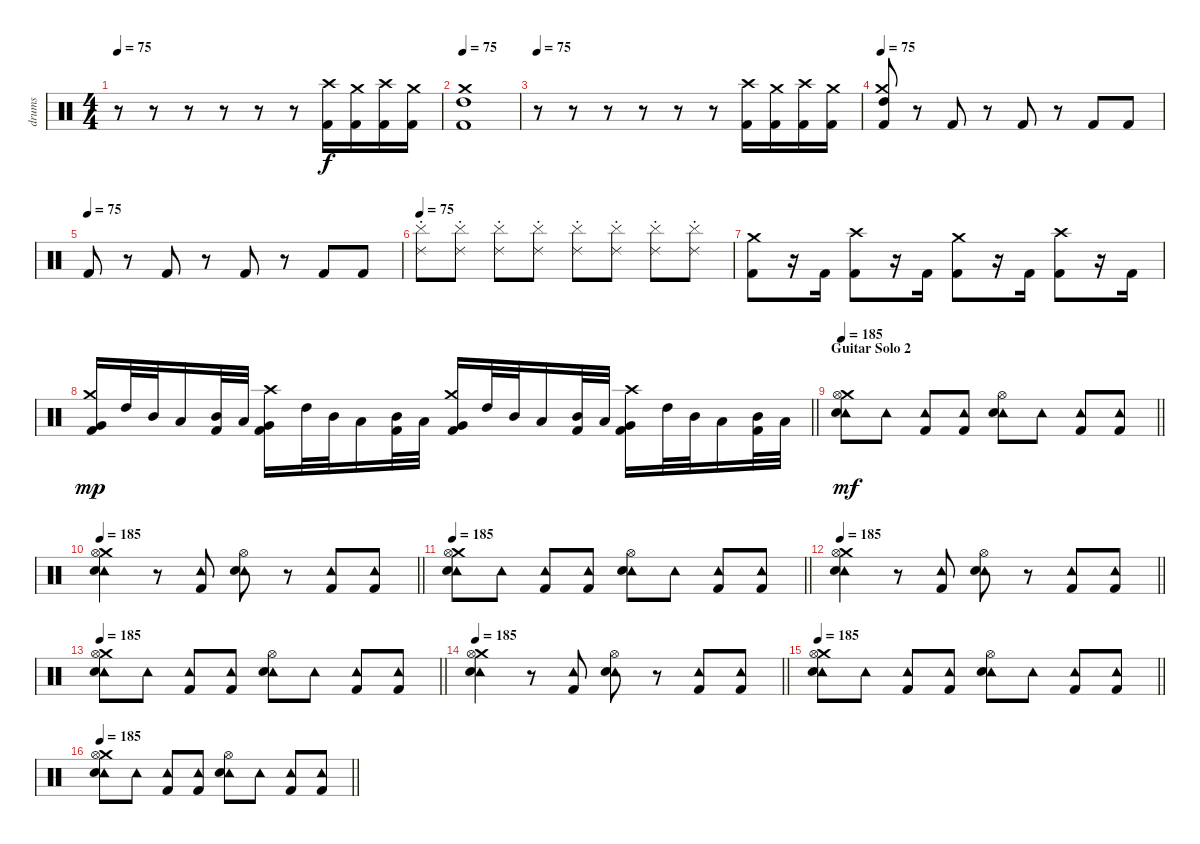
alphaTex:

\track ("drums" "drums") {instrument percussion}
\staff {score}
\articulation defaults
\ts (4 4)
\tempo 75
\clef neutral
\ks c
r.8{dy f} r.8 r.8 r.8 r.8 r.8 ("Crash high (hit)" "Kick (hit) 2").16 ("Crash medium (hit)" "Kick (hit) 2").16 ("Crash high (hit)" "Kick (hit) 2").16 ("Crash medium (hit)" "Kick (hit) 2").16 |
\tempo 75
("Crash medium (hit)" "High Tom (hit)" "Kick (hit) 2").1 |
\tempo 75
r.8 r.8 r.8 r.8 r.8 r.8 ("Crash high (hit)" "Kick (hit) 2").16 ("Crash medium (hit)" "Kick (hit) 2").16 ("Crash high (hit)" "Kick (hit) 2").16 ("Crash medium (hit)" "Kick (hit) 2").16 |
\tempo 75
("Crash medium (hit)" "High Tom (hit)" "Kick (hit) 2").8 r.8 "Kick (hit) 2".8 r.8 "Kick (hit) 2".8 r.8 "Kick (hit) 2".8 "Kick (hit) 2".8 |
\tempo (75)
"Kick (hit) 2".8 r.8 "Kick (hit) 2".8 r.8 "Kick (hit) 2".8 r.8 "Kick (hit) 2".8 "Kick (hit) 2".8 |
\tempo 75
("Cymbal (hit)" "Ride (choke) 2").8 ("Cymbal (hit)" "Ride (choke) 2").8 ("Cymbal (hit)" "Ride (choke) 2").8 ("Cymbal (hit)" "Ride (choke) 2").8 ("Cymbal (hit)" "Ride (choke) 2").8 ("Cymbal (hit)" "Ride (choke) 2").8 ("Cymbal (hit)" "Ride (choke) 2").8 ("Cymbal (hit)" "Ride (choke) 2").8 |
("Crash medium (hit)" "Kick (hit) 2").8 r.16 "Kick (hit) 2".16 ("Crash high (hit)" "Kick (hit) 2").8 r.16 "Kick (hit) 2".16 ("Crash medium (hit)" "Kick (hit) 2").8 r.16 "Kick (hit) 2".16 ("Crash high (hit)" "Kick (hit) 2").8 r.16 "Kick (hit) 2".16 |
\barLineRight lightlight
("Crash medium (hit)" "Very Low Tom (hit)" "Kick (hit) 2").16{dy mp} "High Tom (hit)".32 "Mid Tom (hit)".32 "Low Tom (hit)".16 ("Mid Tom (hit)" "Kick (hit) 2").32 "Low Tom (hit)".32 ("Crash high (hit)" "Very Low Tom (hit)" "Kick (hit) 2").16 "High Tom (hit)".32 "Mid Tom (hit)".32 "Low Tom (hit)".16 ("Mid Tom (hit)" "Kick (hit) 2").32 "Low Tom (hit)".32 ("Crash medium (hit)" "Very Low Tom (hit)" "Kick (hit) 2").16 "High Tom (hit)".32 "Mid Tom (hit)".32 "Low Tom (hit)".16 ("Mid Tom (hit)" "Kick (hit) 2").32 "Low Tom (hit)".32 ("Crash high (hit)" "Very Low Tom (hit)" "Kick (hit) 2").16 "High Tom (hit)".32 "Mid Tom (hit)".32 "Low Tom (hit)".16 ("Mid Tom (hit)" "Kick (hit) 2").32 "Low Tom (hit)".32 |
\section ("" "Guitar Solo 2")
\tempo 185
\barLineRight lightlight
("Tambourine (hit)" "Crash medium (hit)" "Hi-Hat (open)" "Electric Snare (hit)").8{dy mf} "Tambourine (hit)".8 ("Tambourine (hit)" "Kick (hit) 2").8 ("Tambourine (hit)" "Kick (hit) 2").8 ("Tambourine (hit)" "Hi-Hat (open)" "Electric Snare (hit)").8 "Tambourine (hit)".8 ("Tambourine (hit)" "Kick (hit) 2").8 ("Tambourine (hit)" "Kick (hit) 2").8 |
\tempo 185
\barLineRight lightlight
("Tambourine (hit)" "Crash medium (hit)" "Hi-Hat (open)" "Electric Snare (hit)").4 r.8 ("Tambourine (hit)" "Kick (hit) 2").8 ("Tambourine (hit)" "Hi-Hat (open)" "Electric Snare (hit)").8 r.8 ("Tambourine (hit)" "Kick (hit) 2").8 ("Tambourine (hit)" "Kick (hit) 2").8 |
\tempo 185
\barLineRight lightlight
("Tambourine (hit)" "Crash medium (hit)" "Hi-Hat (open)" "Electric Snare (hit)").8 "Tambourine (hit)".8 ("Tambourine (hit)" "Kick (hit) 2").8 ("Tambourine (hit)" "Kick (hit) 2").8 ("Tambourine (hit)" "Hi-Hat (open)" "Electric Snare (hit)").8 "Tambourine (hit)".8 ("Tambourine (hit)" "Kick (hit) 2").8 ("Tambourine (hit)" "Kick (hit) 2").8 |
\tempo 185
\barLineRight lightlight
("Tambourine (hit)" "Crash medium (hit)" "Hi-Hat (open)" "Electric Snare (hit)").4 r.8 ("Tambourine (hit)" "Kick (hit) 2").8 ("Tambourine (hit)" "Hi-Hat (open)" "Electric Snare (hit)").8 r.8 ("Tambourine (hit)" "Kick (hit) 2").8 ("Tambourine (hit)" "Kick (hit) 2").8 |
\tempo 185
\barLineRight lightlight
("Tambourine (hit)" "Crash medium (hit)" "Hi-Hat (open)" "Electric Snare (hit)").8 "Tambourine (hit)".8 ("Tambourine (hit)" "Kick (hit) 2").8 ("Tambourine (hit)" "Kick (hit) 2").8 ("Tambourine (hit)" "Hi-Hat (open)" "Electric Snare (hit)").8 "Tambourine (hit)".8 ("Tambourine (hit)" "Kick (hit) 2").8 ("Tambourine (hit)" "Kick (hit) 2").8 |
\tempo 185
\barLineRight lightlight
("Tambourine (hit)" "Crash medium (hit)" "Hi-Hat (open)" "Electric Snare (hit)").4 r.8 ("Tambourine (hit)" "Kick (hit) 2").8 ("Tambourine (hit)" "Hi-Hat (open)" "Electric Snare (hit)").8 r.8 ("Tambourine (hit)" "Kick (hit) 2").8 ("Tambourine (hit)" "Kick (hit) 2").8 |
\tempo 185
\barLineRight lightlight
("Tambourine (hit)" "Crash medium (hit)" "Hi-Hat (open)" "Electric Snare (hit)").8 "Tambourine (hit)".8 ("Tambourine (hit)" "Kick (hit) 2").8 ("Tambourine (hit)" "Kick (hit) 2").8 ("Tambourine (hit)" "Hi-Hat (open)" "Electric Snare (hit)").8 "Tambourine (hit)".8 ("Tambourine (hit)" "Kick (hit) 2").8 ("Tambourine (hit)" "Kick (hit) 2").8 |
\tempo 185
\barLineRight lightlight
("Tambourine (hit)" "Crash medium (hit)" "Hi-Hat (open)" "Electric Snare (hit)").8 "Tambourine (hit)".8 ("Tambourine (hit)" "Kick (hit) 2").8 ("Tambourine (hit)" "Kick (hit) 2").8 ("Tambourine (hit)" "Hi-Hat (open)" "Electric Snare (hit)").8 "Tambourine (hit)".8 ("Tambourine (hit)" "Kick (hit) 2").8 ("Tambourine (hit)" "Kick (hit) 2").8
